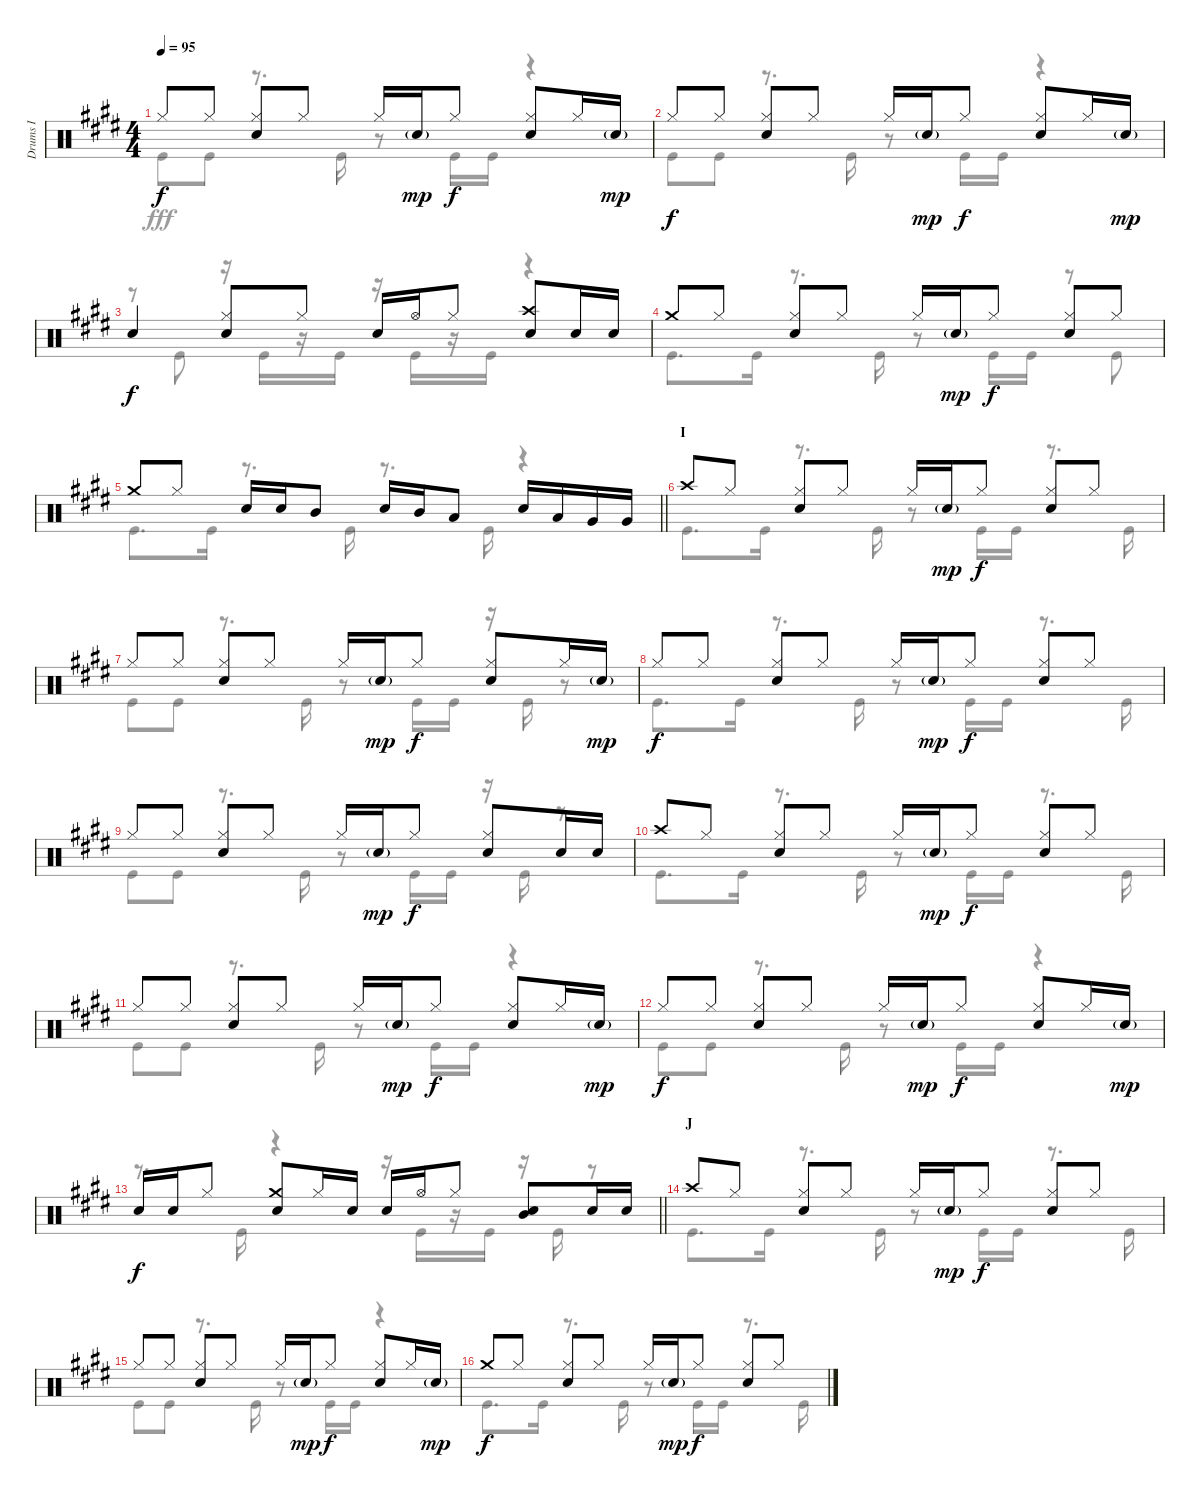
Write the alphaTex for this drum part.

\track ("Drums I" "Drums I") {instrument percussion}
\staff {score}
\articulation defaults
\voice
\ts (4 4)
\tempo 95
\clef neutral
\ks e "Hi-Hat (closed)".8{dy f} "Hi-Hat (closed)".8
("Hi-Hat (closed)" "Snare (hit) 2").8 "Hi-Hat (closed)".8 "Hi-Hat (closed)".16 "Snare (hit) 2"{g}.16{dy mp} "Hi-Hat (closed)".8{dy f} ("Hi-Hat (closed)" "Snare (hit) 2").8 "Hi-Hat (closed)".16 "Snare (hit) 2"{g}.16{dy mp} |
"Hi-Hat (closed)".8{dy f} "Hi-Hat (closed)".8 ("Hi-Hat (closed)" "Snare (hit) 2").8 "Hi-Hat (closed)".8 "Hi-Hat (closed)".16 "Snare (hit) 2"{g}.16{dy mp} "Hi-Hat (closed)".8{dy f} ("Hi-Hat (closed)" "Snare (hit) 2").8 "Hi-Hat (closed)".16 "Snare (hit) 2"{g}.16{dy mp} |
"Snare (hit) 2".4{dy f} ("Hi-Hat (closed)" "Snare (hit) 2").8 "Hi-Hat (closed)".8 "Snare (hit) 2".16 "Hi-Hat (open)".16 "Hi-Hat (closed)".8 ("Crash high (hit)" "Snare (hit) 2").8 "Snare (hit) 2".16 "Snare (hit) 2".16 |
"Crash medium (hit)".8 "Hi-Hat (closed)".8 ("Hi-Hat (closed)" "Snare (hit) 2").8 "Hi-Hat (closed)".8 "Hi-Hat (closed)".16 "Snare (hit) 2"{g}.16{dy mp} "Hi-Hat (closed)".8{dy f} ("Hi-Hat (closed)" "Snare (hit) 2").8 "Hi-Hat (closed)".8 |
\barLineRight lightlight "Crash medium (hit)".8 "Hi-Hat (closed)".8 "Snare (hit) 2".16 "Snare (hit) 2".16 "Mid Tom (hit)".8 "Snare (hit) 2".16 "Mid Tom (hit)".16 "Low Tom (hit)".8 "Snare (hit) 2".16 "Low Tom (hit)".16 "Very Low Tom (hit)".16 "Very Low Tom (hit)".16
|
\section ("" "I")
"Crash high (hit)".8 "Hi-Hat (closed)".8 ("Hi-Hat (closed)" "Snare (hit) 2").8 "Hi-Hat (closed)".8 "Hi-Hat (closed)".16 "Snare (hit) 2"{g}.16{dy mp} "Hi-Hat (closed)".8{dy f} ("Hi-Hat (closed)" "Snare (hit) 2").8 "Hi-Hat (closed)".8 |
"Hi-Hat (closed)".8 "Hi-Hat (closed)".8 ("Hi-Hat (closed)" "Snare (hit) 2").8 "Hi-Hat (closed)".8 "Hi-Hat (closed)".16 "Snare (hit) 2"{g}.16{dy mp} "Hi-Hat (closed)".8{dy f} ("Hi-Hat (closed)" "Snare (hit) 2").8 "Hi-Hat (closed)".16 "Snare (hit) 2"{g}.16{dy mp} |
"Hi-Hat (closed)".8{dy f} "Hi-Hat (closed)".8 ("Hi-Hat (closed)" "Snare (hit) 2").8 "Hi-Hat (closed)".8 "Hi-Hat (closed)".16 "Snare (hit) 2"{g}.16{dy mp} "Hi-Hat (closed)".8{dy f} ("Hi-Hat (closed)" "Snare (hit) 2").8 "Hi-Hat (closed)".8 |
"Hi-Hat (closed)".8 "Hi-Hat (closed)".8 ("Hi-Hat (closed)" "Snare (hit) 2").8 "Hi-Hat (closed)".8 "Hi-Hat (closed)".16 "Snare (hit) 2"{g}.16{dy mp} "Hi-Hat (closed)".8{dy f} ("Hi-Hat (closed)" "Snare (hit) 2").8 "Snare (hit) 2".16 "Snare (hit) 2".16 |
"Crash high (hit)".8 "Hi-Hat (closed)".8 ("Hi-Hat (closed)" "Snare (hit) 2").8 "Hi-Hat (closed)".8 "Hi-Hat (closed)".16 "Snare (hit) 2"{g}.16{dy mp} "Hi-Hat (closed)".8{dy f} ("Hi-Hat (closed)" "Snare (hit) 2").8 "Hi-Hat (closed)".8 |
"Hi-Hat (closed)".8 "Hi-Hat (closed)".8 ("Hi-Hat (closed)" "Snare (hit) 2").8 "Hi-Hat (closed)".8 "Hi-Hat (closed)".16 "Snare (hit) 2"{g}.16{dy mp} "Hi-Hat (closed)".8{dy f} ("Hi-Hat (closed)" "Snare (hit) 2").8 "Hi-Hat (closed)".16 "Snare (hit) 2"{g}.16{dy mp} |
"Hi-Hat (closed)".8{dy f} "Hi-Hat (closed)".8 ("Hi-Hat (closed)" "Snare (hit) 2").8 "Hi-Hat (closed)".8 "Hi-Hat (closed)".16 "Snare (hit) 2"{g}.16{dy mp} "Hi-Hat (closed)".8{dy f} ("Hi-Hat (closed)" "Snare (hit) 2").8 "Hi-Hat (closed)".16 "Snare (hit) 2"{g}.16{dy mp} |
\barLineRight lightlight "Snare (hit) 2".16{dy f} "Snare (hit) 2".16 "Hi-Hat (closed)".8
("Crash medium (hit)" "Snare (hit) 2").8 "Hi-Hat (closed)".16 "Snare (hit) 2".16 "Snare (hit) 2".16 "Hi-Hat (open)".16 "Hi-Hat (closed)".8 ("Mid Tom (hit)" "Snare (hit) 2").8 "Snare (hit) 2".16 "Snare (hit) 2".16 |
\section ("" "J")
"Crash high (hit)".8 "Hi-Hat (closed)".8 ("Hi-Hat (closed)" "Snare (hit) 2").8 "Hi-Hat (closed)".8 "Hi-Hat (closed)".16 "Snare (hit) 2"{g}.16{dy mp} "Hi-Hat (closed)".8{dy f} ("Hi-Hat (closed)" "Snare (hit) 2").8 "Hi-Hat (closed)".8 |
"Hi-Hat (closed)".8 "Hi-Hat (closed)".8 ("Hi-Hat (closed)" "Snare (hit) 2").8 "Hi-Hat (closed)".8 "Hi-Hat (closed)".16 "Snare (hit) 2"{g}.16{dy mp} "Hi-Hat (closed)".8{dy f} ("Hi-Hat (closed)" "Snare (hit) 2").8 "Hi-Hat (closed)".16 "Snare (hit) 2"{g}.16{dy mp} |
"Crash medium (hit)".8{dy f} "Hi-Hat (closed)".8 ("Hi-Hat (closed)" "Snare (hit) 2").8 "Hi-Hat (closed)".8 "Hi-Hat (closed)".16 "Snare (hit) 2"{g}.16{dy mp} "Hi-Hat (closed)".8{dy f} ("Hi-Hat (closed)" "Snare (hit) 2").8 "Hi-Hat (closed)".8
\voice
\clef neutral
\ottava regular
\simile none
\ks e "Kick (hit)".8{dy fff} "Kick (hit)".8
r.8{d} "Kick (hit)".16 r.8 "Kick (hit)".16 "Kick (hit)".16 r.4 |
"Kick (hit)".8 "Kick (hit)".8 r.8{d} "Kick (hit)".16 r.8 "Kick (hit)".16 "Kick (hit)".16 r.4 |
r.8 "Kick (hit)".8 r.16 "Kick (hit)".16 r.16 "Kick (hit)".16 r.16 "Kick (hit)".16 r.16 "Kick (hit)".16 r.4 |
"Kick (hit)".8{d} "Kick (hit)".16 r.8{d} "Kick (hit)".16 r.8 "Kick (hit)".16 "Kick (hit)".16 r.8 "Kick (hit)".8 |
\barLineRight lightlight "Kick (hit)".8{d} "Kick (hit)".16
r.8{d} "Kick (hit)".16 r.8{d} "Kick (hit)".16 r.4 |
"Kick (hit)".8{d} "Kick (hit)".16 r.8{d} "Kick (hit)".16 r.8 "Kick (hit)".16 "Kick (hit)".16 r.8{d} "Kick (hit)".16 |
"Kick (hit)".8 "Kick (hit)".8 r.8{d} "Kick (hit)".16 r.8 "Kick (hit)".16 "Kick (hit)".16 r.16 "Kick (hit)".16 r.8 |
"Kick (hit)".8{d} "Kick (hit)".16 r.8{d} "Kick (hit)".16 r.8 "Kick (hit)".16 "Kick (hit)".16 r.8{d} "Kick (hit)".16 |
"Kick (hit)".8 "Kick (hit)".8 r.8{d} "Kick (hit)".16 r.8 "Kick (hit)".16 "Kick (hit)".16 r.16 "Kick (hit)".16 r.8 |
"Kick (hit)".8{d} "Kick (hit)".16 r.8{d} "Kick (hit)".16 r.8 "Kick (hit)".16 "Kick (hit)".16 r.8{d} "Kick (hit)".16 |
"Kick (hit)".8 "Kick (hit)".8 r.8{d} "Kick (hit)".16 r.8 "Kick (hit)".16 "Kick (hit)".16 r.4 |
"Kick (hit)".8 "Kick (hit)".8 r.8{d} "Kick (hit)".16 r.8 "Kick (hit)".16 "Kick (hit)".16 r.4 |
\barLineRight lightlight
r.8{d} "Kick (hit)".16 r.4 r.16 "Kick (hit)".16 r.16 "Kick (hit)".16 r.16 "Kick (hit)".16 r.8 |
"Kick (hit)".8{d} "Kick (hit)".16 r.8{d} "Kick (hit)".16 r.8 "Kick (hit)".16 "Kick (hit)".16 r.8{d} "Kick (hit)".16 |
"Kick (hit)".8 "Kick (hit)".8 r.8{d} "Kick (hit)".16 r.8 "Kick (hit)".16 "Kick (hit)".16 r.4 |
"Kick (hit)".8{d} "Kick (hit)".16 r.8{d} "Kick (hit)".16 r.8 "Kick (hit)".16 "Kick (hit)".16 r.8{d} "Kick (hit)".16
